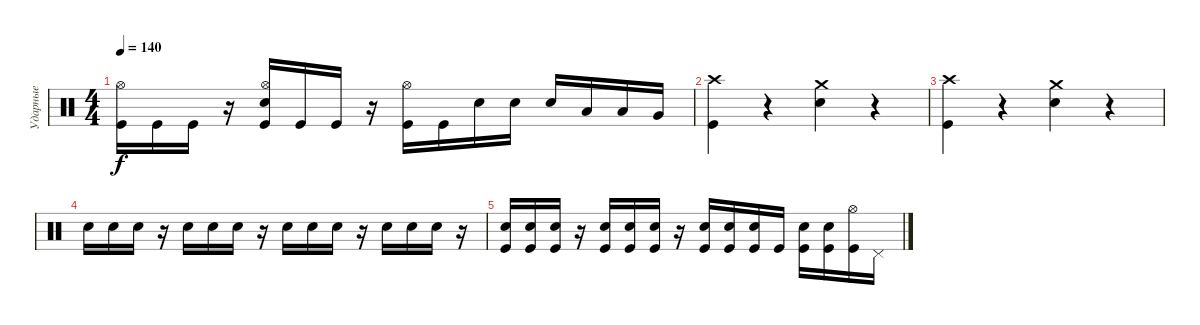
\track ("Ударные" "Ударные") {instrument percussion}
\staff {score}
\articulation defaults
\ts (4 4)
\tempo 140
\clef neutral
\ks c
("Kick (hit)" "Hi-Hat (open)").16{dy f} "Kick (hit)".16 "Kick (hit)".16 r.16 ("Kick (hit)" "Snare (hit) 2" "Hi-Hat (open)").16 "Kick (hit)".16 "Kick (hit)".16 r.16 ("Kick (hit)" "Hi-Hat (open)").16 "Kick (hit)".16 "Snare (hit) 2".16 "Snare (hit) 2".16 "Snare (hit) 2".16 "Low Tom (hit)".16 "Low Tom (hit)".16 "Very Low Tom (hit)".16 |
("Kick (hit)" "Crash high (hit)").4 r.4 ("Snare (hit) 2" "Crash medium (hit)").4 r.4 |
("Kick (hit)" "Crash high (hit)").4 r.4 ("Snare (hit) 2" "Crash medium (hit)").4 r.4 |
"Snare (hit) 2".16 "Snare (hit) 2".16 "Snare (hit) 2".16 r.16 "Snare (hit) 2".16 "Snare (hit) 2".16 "Snare (hit) 2".16 r.16 "Snare (hit) 2".16 "Snare (hit) 2".16 "Snare (hit) 2".16 r.16 "Snare (hit) 2".16 "Snare (hit) 2".16 "Snare (hit) 2".16 r.16 |
("Snare (hit) 2" "Kick (hit)").16 ("Snare (hit) 2" "Kick (hit)").16 ("Snare (hit) 2" "Kick (hit)").16 r.16 ("Snare (hit) 2" "Kick (hit)").16 ("Snare (hit) 2" "Kick (hit)").16 ("Snare (hit) 2" "Kick (hit)").16 r.16 ("Snare (hit) 2" "Kick (hit)").16 ("Snare (hit) 2" "Kick (hit)").16 ("Snare (hit) 2" "Kick (hit)").16 "Kick (hit)".16 ("Kick (hit)" "Snare (hit) 2").16 ("Kick (hit)" "Snare (hit) 2").16 ("Kick (hit)" "Hi-Hat (open)").16 "Pedal Hi-Hat (hit)".16
